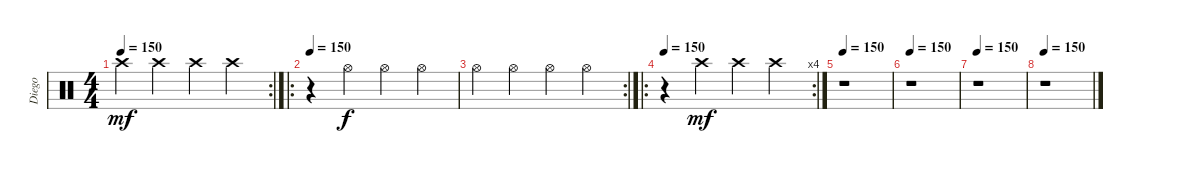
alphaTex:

\track ("Diego" "Diego") {instrument percussion}
\staff {score}
\articulation defaults
\rc 2
\ts (4 4)
\tempo 150
\clef neutral
\ks c "Crash high (hit)".4{dy mf} "Crash high (hit)".4 "Crash high (hit)".4 "Crash high (hit)".4
|
\ro
\tempo 150
r.4 "Hi-Hat (open)".4{dy f} "Hi-Hat (open)".4 "Hi-Hat (open)".4 |
\rc 2 "Hi-Hat (open)".4 "Hi-Hat (open)".4 "Hi-Hat (open)".4 "Hi-Hat (open)".4
|
\ro
\rc 4
\tempo 150
r.4 "Crash high (hit)".4{dy mf} "Crash high (hit)".4 "Crash high (hit)".4 |
\tempo 150
r.1 |
\tempo 150
r.1 |
\tempo 150
r.1 |
\tempo 150
r.1
